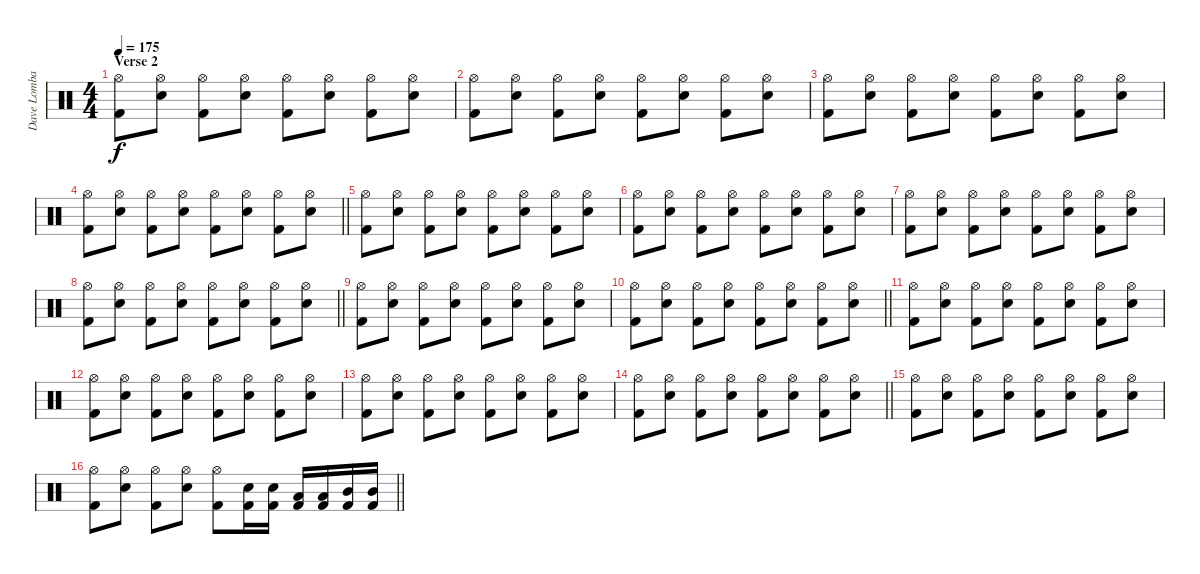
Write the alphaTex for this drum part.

\track ("Dave Lombardo" "Dave Lomba") {instrument percussion}
\staff {score}
\articulation defaults
\ts (4 4)
\section ("" "Verse 2")
\tempo 175
\clef neutral
\ks c
("Hi-Hat (open)" "Kick (hit) 2").8{dy f} ("Hi-Hat (open)" "Snare (hit) 2").8 ("Hi-Hat (open)" "Kick (hit) 2").8 ("Hi-Hat (open)" "Snare (hit) 2").8 ("Hi-Hat (open)" "Kick (hit) 2").8 ("Hi-Hat (open)" "Snare (hit) 2").8 ("Hi-Hat (open)" "Kick (hit) 2").8 ("Hi-Hat (open)" "Snare (hit) 2").8 |
("Hi-Hat (open)" "Kick (hit) 2").8 ("Hi-Hat (open)" "Snare (hit) 2").8 ("Hi-Hat (open)" "Kick (hit) 2").8 ("Hi-Hat (open)" "Snare (hit) 2").8 ("Hi-Hat (open)" "Kick (hit) 2").8 ("Hi-Hat (open)" "Snare (hit) 2").8 ("Hi-Hat (open)" "Kick (hit) 2").8 ("Hi-Hat (open)" "Snare (hit) 2").8 |
("Hi-Hat (open)" "Kick (hit) 2").8 ("Hi-Hat (open)" "Snare (hit) 2").8 ("Hi-Hat (open)" "Kick (hit) 2").8 ("Hi-Hat (open)" "Snare (hit) 2").8 ("Hi-Hat (open)" "Kick (hit) 2").8 ("Hi-Hat (open)" "Snare (hit) 2").8 ("Hi-Hat (open)" "Kick (hit) 2").8 ("Hi-Hat (open)" "Snare (hit) 2").8 |
\barLineRight lightlight
("Hi-Hat (open)" "Kick (hit) 2").8 ("Hi-Hat (open)" "Snare (hit) 2").8 ("Hi-Hat (open)" "Kick (hit) 2").8 ("Hi-Hat (open)" "Snare (hit) 2").8 ("Hi-Hat (open)" "Kick (hit) 2").8 ("Hi-Hat (open)" "Snare (hit) 2").8 ("Hi-Hat (open)" "Kick (hit) 2").8 ("Hi-Hat (open)" "Snare (hit) 2").8 |
("Hi-Hat (open)" "Kick (hit) 2").8 ("Hi-Hat (open)" "Snare (hit) 2").8 ("Hi-Hat (open)" "Kick (hit) 2").8 ("Hi-Hat (open)" "Snare (hit) 2").8 ("Hi-Hat (open)" "Kick (hit) 2").8 ("Hi-Hat (open)" "Snare (hit) 2").8 ("Hi-Hat (open)" "Kick (hit) 2").8 ("Hi-Hat (open)" "Snare (hit) 2").8 |
("Hi-Hat (open)" "Kick (hit) 2").8 ("Hi-Hat (open)" "Snare (hit) 2").8 ("Hi-Hat (open)" "Kick (hit) 2").8 ("Hi-Hat (open)" "Snare (hit) 2").8 ("Hi-Hat (open)" "Kick (hit) 2").8 ("Hi-Hat (open)" "Snare (hit) 2").8 ("Hi-Hat (open)" "Kick (hit) 2").8 ("Hi-Hat (open)" "Snare (hit) 2").8 |
("Hi-Hat (open)" "Kick (hit) 2").8 ("Hi-Hat (open)" "Snare (hit) 2").8 ("Hi-Hat (open)" "Kick (hit) 2").8 ("Hi-Hat (open)" "Snare (hit) 2").8 ("Hi-Hat (open)" "Kick (hit) 2").8 ("Hi-Hat (open)" "Snare (hit) 2").8 ("Hi-Hat (open)" "Kick (hit) 2").8 ("Hi-Hat (open)" "Snare (hit) 2").8 |
\barLineRight lightlight
("Hi-Hat (open)" "Kick (hit) 2").8 ("Hi-Hat (open)" "Snare (hit) 2").8 ("Hi-Hat (open)" "Kick (hit) 2").8 ("Hi-Hat (open)" "Snare (hit) 2").8 ("Hi-Hat (open)" "Kick (hit) 2").8 ("Hi-Hat (open)" "Snare (hit) 2").8 ("Hi-Hat (open)" "Kick (hit) 2").8 ("Hi-Hat (open)" "Snare (hit) 2").8 |
("Hi-Hat (open)" "Kick (hit) 2").8 ("Hi-Hat (open)" "Snare (hit) 2").8 ("Hi-Hat (open)" "Kick (hit) 2").8 ("Hi-Hat (open)" "Snare (hit) 2").8 ("Hi-Hat (open)" "Kick (hit) 2").8 ("Hi-Hat (open)" "Snare (hit) 2").8 ("Hi-Hat (open)" "Kick (hit) 2").8 ("Hi-Hat (open)" "Snare (hit) 2").8 |
\barLineRight lightlight
("Hi-Hat (open)" "Kick (hit) 2").8 ("Hi-Hat (open)" "Snare (hit) 2").8 ("Hi-Hat (open)" "Kick (hit) 2").8 ("Hi-Hat (open)" "Snare (hit) 2").8 ("Hi-Hat (open)" "Kick (hit) 2").8 ("Hi-Hat (open)" "Snare (hit) 2").8 ("Hi-Hat (open)" "Kick (hit) 2").8 ("Hi-Hat (open)" "Snare (hit) 2").8 |
("Hi-Hat (open)" "Kick (hit) 2").8 ("Hi-Hat (open)" "Snare (hit) 2").8 ("Hi-Hat (open)" "Kick (hit) 2").8 ("Hi-Hat (open)" "Snare (hit) 2").8 ("Hi-Hat (open)" "Kick (hit) 2").8 ("Hi-Hat (open)" "Snare (hit) 2").8 ("Hi-Hat (open)" "Kick (hit) 2").8 ("Hi-Hat (open)" "Snare (hit) 2").8 |
("Hi-Hat (open)" "Kick (hit) 2").8 ("Hi-Hat (open)" "Snare (hit) 2").8 ("Hi-Hat (open)" "Kick (hit) 2").8 ("Hi-Hat (open)" "Snare (hit) 2").8 ("Hi-Hat (open)" "Kick (hit) 2").8 ("Hi-Hat (open)" "Snare (hit) 2").8 ("Hi-Hat (open)" "Kick (hit) 2").8 ("Hi-Hat (open)" "Snare (hit) 2").8 |
("Hi-Hat (open)" "Kick (hit) 2").8 ("Hi-Hat (open)" "Snare (hit) 2").8 ("Hi-Hat (open)" "Kick (hit) 2").8 ("Hi-Hat (open)" "Snare (hit) 2").8 ("Hi-Hat (open)" "Kick (hit) 2").8 ("Hi-Hat (open)" "Snare (hit) 2").8 ("Hi-Hat (open)" "Kick (hit) 2").8 ("Hi-Hat (open)" "Snare (hit) 2").8 |
\barLineRight lightlight
("Hi-Hat (open)" "Kick (hit) 2").8 ("Hi-Hat (open)" "Snare (hit) 2").8 ("Hi-Hat (open)" "Kick (hit) 2").8 ("Hi-Hat (open)" "Snare (hit) 2").8 ("Hi-Hat (open)" "Kick (hit) 2").8 ("Hi-Hat (open)" "Snare (hit) 2").8 ("Hi-Hat (open)" "Kick (hit) 2").8 ("Hi-Hat (open)" "Snare (hit) 2").8 |
("Hi-Hat (open)" "Kick (hit) 2").8 ("Hi-Hat (open)" "Snare (hit) 2").8 ("Hi-Hat (open)" "Kick (hit) 2").8 ("Hi-Hat (open)" "Snare (hit) 2").8 ("Hi-Hat (open)" "Kick (hit) 2").8 ("Hi-Hat (open)" "Snare (hit) 2").8 ("Hi-Hat (open)" "Kick (hit) 2").8 ("Hi-Hat (open)" "Snare (hit) 2").8 |
\barLineRight lightlight
("Hi-Hat (open)" "Kick (hit) 2").8 ("Hi-Hat (open)" "Snare (hit) 2").8 ("Hi-Hat (open)" "Kick (hit) 2").8 ("Hi-Hat (open)" "Snare (hit) 2").8 ("Hi-Hat (open)" "Kick (hit) 2").8 ("Snare (hit) 2" "Kick (hit) 2").16 ("Snare (hit) 2" "Kick (hit) 2").16 ("Low Tom (hit)" "Kick (hit) 2").16 ("Low Tom (hit)" "Kick (hit) 2").16 ("Mid Tom (hit)" "Kick (hit) 2").16 ("Mid Tom (hit)" "Kick (hit) 2").16
